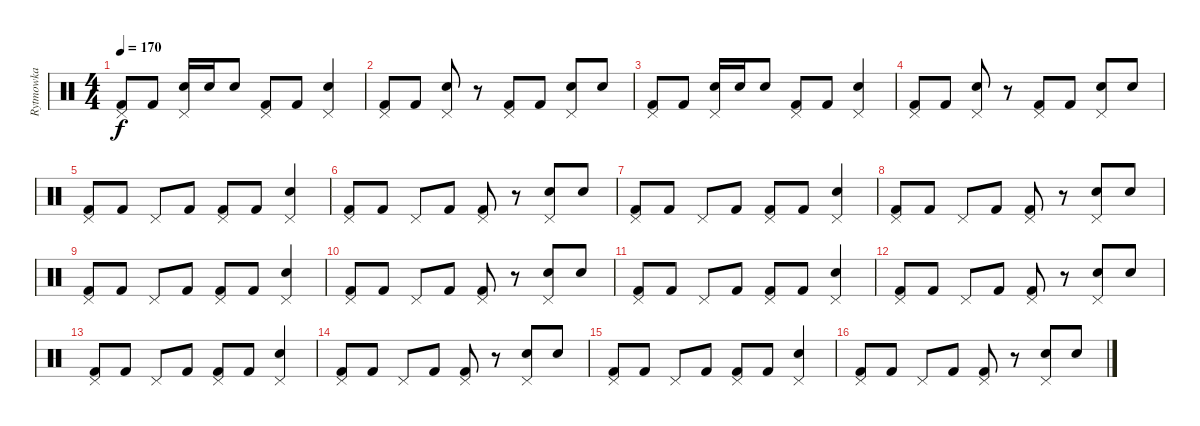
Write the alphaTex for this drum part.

\track ("Rytmowka" "Rytmowka") {instrument percussion}
\staff {score}
\articulation defaults
\ts (4 4)
\tempo 170
\clef neutral
\ks c
("Pedal Hi-Hat (hit)" "Kick (hit) 2").8{dy f} "Kick (hit) 2".8 ("Pedal Hi-Hat (hit)" "Snare (hit) 2").16 "Snare (hit) 2".16 "Snare (hit) 2".8 ("Pedal Hi-Hat (hit)" "Kick (hit) 2").8 "Kick (hit) 2".8 ("Pedal Hi-Hat (hit)" "Snare (hit) 2").4 |
("Pedal Hi-Hat (hit)" "Kick (hit) 2").8 "Kick (hit) 2".8 ("Pedal Hi-Hat (hit)" "Snare (hit) 2").8 r.8 ("Pedal Hi-Hat (hit)" "Kick (hit) 2").8 "Kick (hit) 2".8 ("Pedal Hi-Hat (hit)" "Snare (hit) 2").8 "Snare (hit) 2".8 |
("Pedal Hi-Hat (hit)" "Kick (hit) 2").8 "Kick (hit) 2".8 ("Pedal Hi-Hat (hit)" "Snare (hit) 2").16 "Snare (hit) 2".16 "Snare (hit) 2".8 ("Pedal Hi-Hat (hit)" "Kick (hit) 2").8 "Kick (hit) 2".8 ("Pedal Hi-Hat (hit)" "Snare (hit) 2").4 |
("Pedal Hi-Hat (hit)" "Kick (hit) 2").8 "Kick (hit) 2".8 ("Pedal Hi-Hat (hit)" "Snare (hit) 2").8 r.8 ("Pedal Hi-Hat (hit)" "Kick (hit) 2").8 "Kick (hit) 2".8 ("Pedal Hi-Hat (hit)" "Snare (hit) 2").8 "Snare (hit) 2".8 |
("Pedal Hi-Hat (hit)" "Kick (hit) 2").8 "Kick (hit) 2".8 "Pedal Hi-Hat (hit)".8 "Kick (hit) 2".8 ("Pedal Hi-Hat (hit)" "Kick (hit) 2").8 "Kick (hit) 2".8 ("Pedal Hi-Hat (hit)" "Snare (hit) 2").4 |
("Pedal Hi-Hat (hit)" "Kick (hit) 2").8 "Kick (hit) 2".8 "Pedal Hi-Hat (hit)".8 "Kick (hit) 2".8 ("Pedal Hi-Hat (hit)" "Kick (hit) 2").8 r.8 ("Pedal Hi-Hat (hit)" "Snare (hit) 2").8 "Snare (hit) 2".8 |
("Pedal Hi-Hat (hit)" "Kick (hit) 2").8 "Kick (hit) 2".8 "Pedal Hi-Hat (hit)".8 "Kick (hit) 2".8 ("Pedal Hi-Hat (hit)" "Kick (hit) 2").8 "Kick (hit) 2".8 ("Pedal Hi-Hat (hit)" "Snare (hit) 2").4 |
("Pedal Hi-Hat (hit)" "Kick (hit) 2").8 "Kick (hit) 2".8 "Pedal Hi-Hat (hit)".8 "Kick (hit) 2".8 ("Pedal Hi-Hat (hit)" "Kick (hit) 2").8 r.8 ("Pedal Hi-Hat (hit)" "Snare (hit) 2").8 "Snare (hit) 2".8 |
("Pedal Hi-Hat (hit)" "Kick (hit) 2").8 "Kick (hit) 2".8 "Pedal Hi-Hat (hit)".8 "Kick (hit) 2".8 ("Pedal Hi-Hat (hit)" "Kick (hit) 2").8 "Kick (hit) 2".8 ("Pedal Hi-Hat (hit)" "Snare (hit) 2").4 |
("Pedal Hi-Hat (hit)" "Kick (hit) 2").8 "Kick (hit) 2".8 "Pedal Hi-Hat (hit)".8 "Kick (hit) 2".8 ("Pedal Hi-Hat (hit)" "Kick (hit) 2").8 r.8 ("Pedal Hi-Hat (hit)" "Snare (hit) 2").8 "Snare (hit) 2".8 |
("Pedal Hi-Hat (hit)" "Kick (hit) 2").8 "Kick (hit) 2".8 "Pedal Hi-Hat (hit)".8 "Kick (hit) 2".8 ("Pedal Hi-Hat (hit)" "Kick (hit) 2").8 "Kick (hit) 2".8 ("Pedal Hi-Hat (hit)" "Snare (hit) 2").4 |
("Pedal Hi-Hat (hit)" "Kick (hit) 2").8 "Kick (hit) 2".8 "Pedal Hi-Hat (hit)".8 "Kick (hit) 2".8 ("Pedal Hi-Hat (hit)" "Kick (hit) 2").8 r.8 ("Pedal Hi-Hat (hit)" "Snare (hit) 2").8 "Snare (hit) 2".8 |
("Pedal Hi-Hat (hit)" "Kick (hit) 2").8 "Kick (hit) 2".8 "Pedal Hi-Hat (hit)".8 "Kick (hit) 2".8 ("Pedal Hi-Hat (hit)" "Kick (hit) 2").8 "Kick (hit) 2".8 ("Pedal Hi-Hat (hit)" "Snare (hit) 2").4 |
("Pedal Hi-Hat (hit)" "Kick (hit) 2").8 "Kick (hit) 2".8 "Pedal Hi-Hat (hit)".8 "Kick (hit) 2".8 ("Pedal Hi-Hat (hit)" "Kick (hit) 2").8 r.8 ("Pedal Hi-Hat (hit)" "Snare (hit) 2").8 "Snare (hit) 2".8 |
("Pedal Hi-Hat (hit)" "Kick (hit) 2").8 "Kick (hit) 2".8 "Pedal Hi-Hat (hit)".8 "Kick (hit) 2".8 ("Pedal Hi-Hat (hit)" "Kick (hit) 2").8 "Kick (hit) 2".8 ("Pedal Hi-Hat (hit)" "Snare (hit) 2").4 |
("Pedal Hi-Hat (hit)" "Kick (hit) 2").8 "Kick (hit) 2".8 "Pedal Hi-Hat (hit)".8 "Kick (hit) 2".8 ("Pedal Hi-Hat (hit)" "Kick (hit) 2").8 r.8 ("Pedal Hi-Hat (hit)" "Snare (hit) 2").8 "Snare (hit) 2".8
